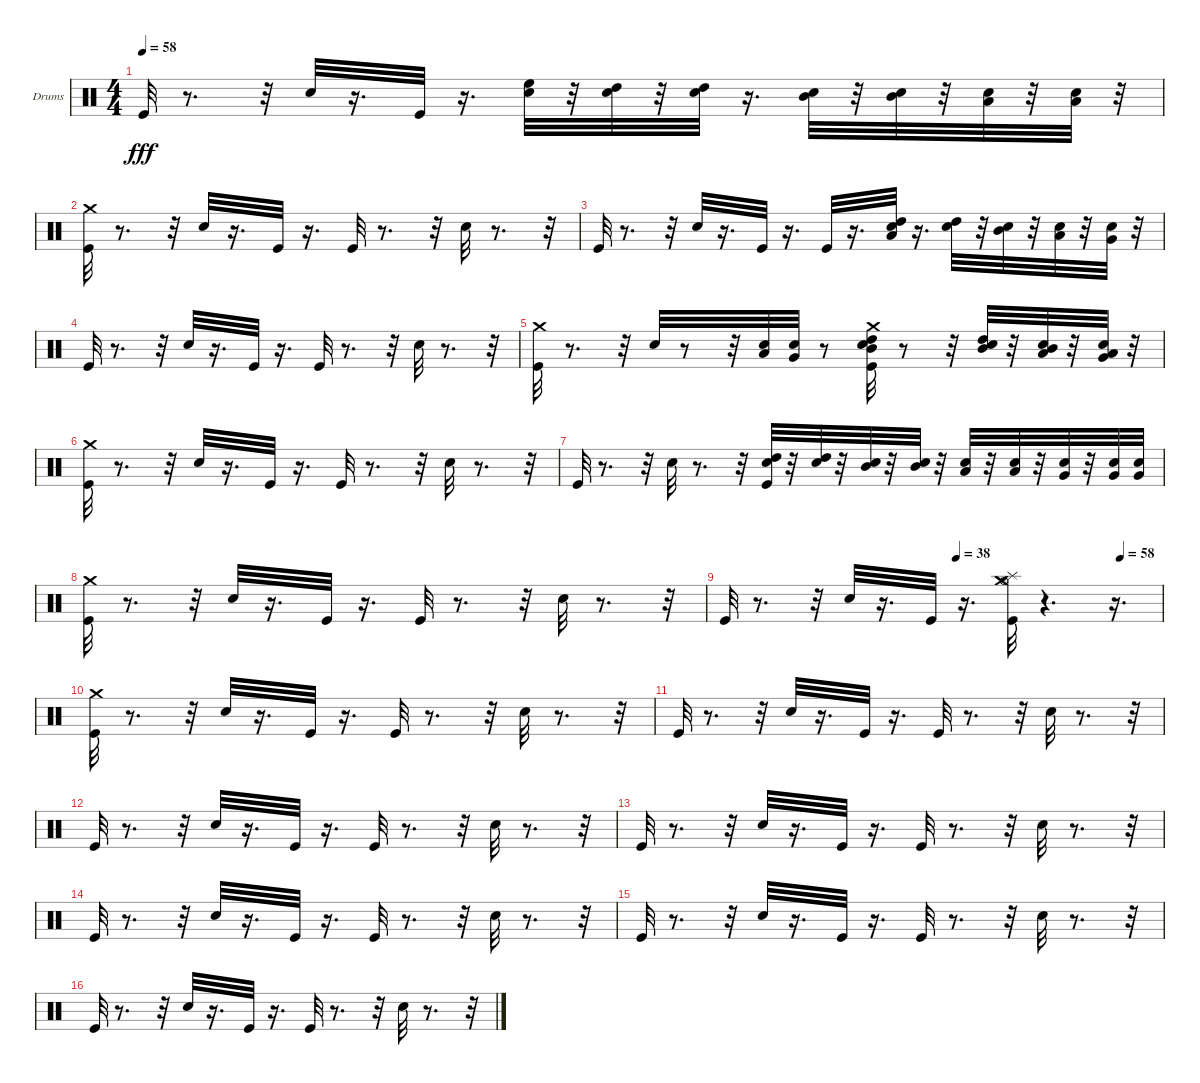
\bracketExtendMode groupsimilarinstruments
\firstSystemTrackNameOrientation horizontal
\otherSystemsTrackNameOrientation horizontal
\track ("Drumkit" "Drums") {instrument percussion}
\staff {score}
\articulation defaults
\ts (4 4)
\tempo 58
\clef neutral
\ks c "Kick (hit)".32{dy fff}
r.8{d} r.32 "Snare (hit) 2".32 r.16{d} "Kick (hit)".32 r.16{d} ("Snare (hit) 2" "High Floor Tom (hit)").32 r.32 ("Snare (hit) 2" "High Tom (hit)").32 r.32 ("Snare (hit) 2" "High Tom (hit)").32 r.16{d} ("Snare (hit) 2" "Mid Tom (hit)").32 r.32 ("Mid Tom (hit)" "Snare (hit) 2").32 r.32 ("Snare (hit) 2" "Low Tom (hit)").32 r.32 ("Snare (hit) 2" "Low Tom (hit)").32 r.32 |
("Kick (hit)" "Crash medium (hit)").32 r.8{d} r.32 "Snare (hit) 2".32 r.16{d} "Kick (hit)".32 r.16{d} "Kick (hit)".32 r.8{d} r.32 "Snare (hit) 2".32 r.8{d} r.32 |
"Kick (hit)".32 r.8{d} r.32 "Snare (hit) 2".32 r.16{d} "Kick (hit)".32 r.16{d} "Kick (hit)".32 r.16{d} ("Snare (hit) 2" "High Tom (hit)" "Low Tom (hit)").32 r.16{d} ("Snare (hit) 2" "High Tom (hit)").32 r.32 ("Mid Tom (hit)" "Snare (hit) 2").32 r.32 ("Snare (hit) 2" "Low Tom (hit)").32 r.32 ("Snare (hit) 2" "Very Low Tom (hit)").32 r.32 |
"Kick (hit)".32 r.8{d} r.32 "Snare (hit) 2".32 r.16{d} "Kick (hit)".32 r.16{d} "Kick (hit)".32 r.8{d} r.32 "Snare (hit) 2".32 r.8{d} r.32 |
("Kick (hit)" "Crash medium (hit)").32 r.8{d} r.32 "Snare (hit) 2".32 r.8 r.32 ("Snare (hit) 2" "Low Tom (hit)").32 ("Snare (hit) 2" "Very Low Tom (hit)").32 r.8 ("Snare (hit) 2" "Kick (hit)" "Crash medium (hit)" "High Tom (hit)" "Mid Tom (hit)").32 r.8 r.32 ("Snare (hit) 2" "High Tom (hit)" "Mid Tom (hit)").32 r.32 ("Snare (hit) 2" "Mid Tom (hit)" "Low Tom (hit)").32 r.32 ("Snare (hit) 2" "Very Low Tom (hit)" "Low Tom (hit)").32 r.32 |
("Kick (hit)" "Crash medium (hit)").32 r.8{d} r.32 "Snare (hit) 2".32 r.16{d} "Kick (hit)".32 r.16{d} "Kick (hit)".32 r.8{d} r.32 "Snare (hit) 2".32 r.8{d} r.32 |
"Kick (hit)".32 r.8{d} r.32 "Snare (hit) 2".32 r.8{d} r.32 ("Kick (hit)" "Snare (hit) 2" "High Tom (hit)").32 r.32 ("Snare (hit) 2" "High Tom (hit)").32 r.32 ("Snare (hit) 2" "Mid Tom (hit)").32 r.32 ("Snare (hit) 2" "Mid Tom (hit)").32 r.32 ("Snare (hit) 2" "Low Tom (hit)").32 r.32 ("Snare (hit) 2" "Low Tom (hit)").32 r.32 ("Very Low Tom (hit)" "Snare (hit) 2").32 r.32 ("Snare (hit) 2" "Very Low Tom (hit)").32 ("Snare (hit) 2" "Very Low Tom (hit)").32 |
("Kick (hit)" "Crash medium (hit)").32 r.8{d} r.32 "Snare (hit) 2".32 r.16{d} "Kick (hit)".32 r.16{d} "Kick (hit)".32 r.8{d} r.32 "Snare (hit) 2".32 r.8{d} r.32 |
\tempo (38 0.53125)
\tempo (58 0.90625)
"Kick (hit)".32 r.8{d} r.32 "Snare (hit) 2".32 r.16{d} "Kick (hit)".32 r.16{d} ("Kick (hit)" "Splash (hit)" "Hi-Hat (open)" "Crash medium (hit)").32 r.4{d} r.16{d} |
("Kick (hit)" "Crash medium (hit)").32 r.8{d} r.32 "Snare (hit) 2".32 r.16{d} "Kick (hit)".32 r.16{d} "Kick (hit)".32 r.8{d} r.32 "Snare (hit) 2".32 r.8{d} r.32 |
"Kick (hit)".32 r.8{d} r.32 "Snare (hit) 2".32 r.16{d} "Kick (hit)".32 r.16{d} "Kick (hit)".32 r.8{d} r.32 "Snare (hit) 2".32 r.8{d} r.32 |
"Kick (hit)".32 r.8{d} r.32 "Snare (hit) 2".32 r.16{d} "Kick (hit)".32 r.16{d} "Kick (hit)".32 r.8{d} r.32 "Snare (hit) 2".32 r.8{d} r.32 |
"Kick (hit)".32 r.8{d} r.32 "Snare (hit) 2".32 r.16{d} "Kick (hit)".32 r.16{d} "Kick (hit)".32 r.8{d} r.32 "Snare (hit) 2".32 r.8{d} r.32 |
"Kick (hit)".32 r.8{d} r.32 "Snare (hit) 2".32 r.16{d} "Kick (hit)".32 r.16{d} "Kick (hit)".32 r.8{d} r.32 "Snare (hit) 2".32 r.8{d} r.32 |
"Kick (hit)".32 r.8{d} r.32 "Snare (hit) 2".32 r.16{d} "Kick (hit)".32 r.16{d} "Kick (hit)".32 r.8{d} r.32 "Snare (hit) 2".32 r.8{d} r.32 |
"Kick (hit)".32 r.8{d} r.32 "Snare (hit) 2".32 r.16{d} "Kick (hit)".32 r.16{d} "Kick (hit)".32 r.8{d} r.32 "Snare (hit) 2".32 r.8{d} r.32
